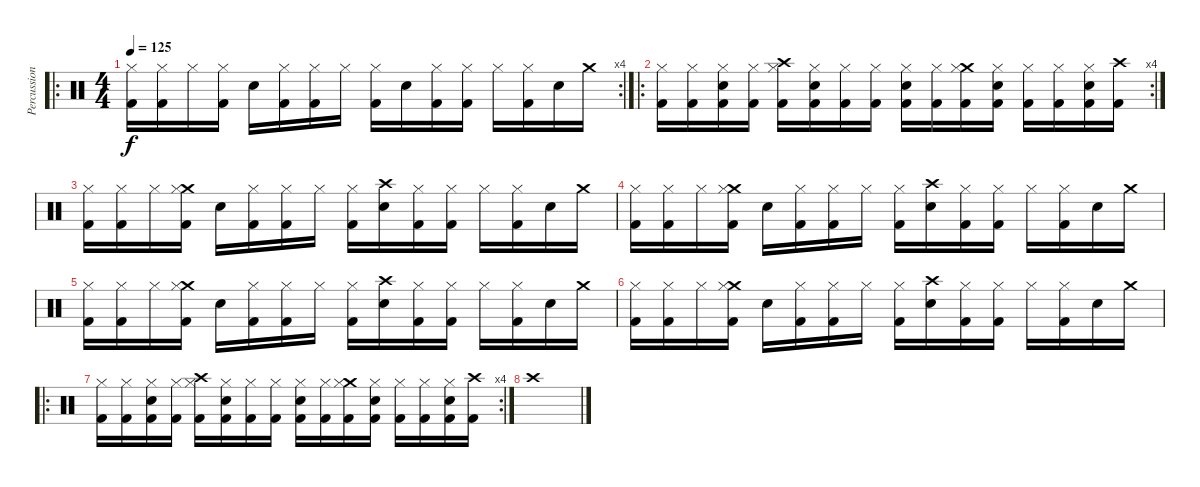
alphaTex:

\track ("Percussion" "Percussion") {instrument percussion}
\staff {score}
\articulation defaults
\ro
\rc 4
\ts (4 4)
\tempo 125
\clef neutral
\ks c
("Kick (hit) 2" "Hi-Hat (closed)").16{dy f} ("Kick (hit) 2" "Hi-Hat (closed)").16 "Hi-Hat (closed)".16 ("Kick (hit) 2" "Hi-Hat (closed)").16 "Electric Snare (hit)".16 ("Kick (hit) 2" "Hi-Hat (closed)").16 ("Kick (hit) 2" "Hi-Hat (closed)").16 "Hi-Hat (closed)".16 ("Kick (hit) 2" "Hi-Hat (closed)").16 "Electric Snare (hit)".16 ("Kick (hit) 2" "Hi-Hat (closed)").16 ("Kick (hit) 2" "Hi-Hat (closed)").16 "Hi-Hat (closed)".16 ("Kick (hit) 2" "Hi-Hat (closed)").16 "Electric Snare (hit)".16 "Crash medium (hit)".16 |
\ro
\rc 4
("Hi-Hat (closed)" "Kick (hit) 2").16 ("Hi-Hat (closed)" "Kick (hit) 2").16 ("Electric Snare (hit)" "Hi-Hat (closed)" "Kick (hit) 2").16 ("Hi-Hat (closed)" "Kick (hit) 2").16 ("Crash high (hit)" "Hi-Hat (closed)" "Kick (hit) 2").16 ("Electric Snare (hit)" "Hi-Hat (closed)" "Kick (hit) 2").16 ("Hi-Hat (closed)" "Kick (hit) 2").16 ("Hi-Hat (closed)" "Kick (hit) 2").16 ("Electric Snare (hit)" "Hi-Hat (closed)" "Kick (hit) 2").16 ("Hi-Hat (closed)" "Kick (hit) 2").16 ("Crash medium (hit)" "Hi-Hat (closed)" "Kick (hit) 2").16 ("Electric Snare (hit)" "Hi-Hat (closed)" "Kick (hit) 2").16 ("Hi-Hat (closed)" "Kick (hit) 2").16 ("Hi-Hat (closed)" "Kick (hit) 2").16 ("Electric Snare (hit)" "Hi-Hat (closed)" "Kick (hit) 2").16 ("Crash high (hit)" "Kick (hit) 2").16 |
("Kick (hit) 2" "Hi-Hat (closed)").16 ("Kick (hit) 2" "Hi-Hat (closed)").16 "Hi-Hat (closed)".16 ("Crash medium (hit)" "Kick (hit) 2" "Hi-Hat (closed)").16 "Electric Snare (hit)".16 ("Kick (hit) 2" "Hi-Hat (closed)").16 ("Kick (hit) 2" "Hi-Hat (closed)").16 "Hi-Hat (closed)".16 ("Kick (hit) 2" "Hi-Hat (closed)").16 ("Crash high (hit)" "Electric Snare (hit)").16 ("Kick (hit) 2" "Hi-Hat (closed)").16 ("Kick (hit) 2" "Hi-Hat (closed)").16 "Hi-Hat (closed)".16 ("Kick (hit) 2" "Hi-Hat (closed)").16 "Electric Snare (hit)".16 "Crash medium (hit)".16 |
("Kick (hit) 2" "Hi-Hat (closed)").16 ("Kick (hit) 2" "Hi-Hat (closed)").16 "Hi-Hat (closed)".16 ("Crash medium (hit)" "Kick (hit) 2" "Hi-Hat (closed)").16 "Electric Snare (hit)".16 ("Kick (hit) 2" "Hi-Hat (closed)").16 ("Kick (hit) 2" "Hi-Hat (closed)").16 "Hi-Hat (closed)".16 ("Kick (hit) 2" "Hi-Hat (closed)").16 ("Crash high (hit)" "Electric Snare (hit)").16 ("Kick (hit) 2" "Hi-Hat (closed)").16 ("Kick (hit) 2" "Hi-Hat (closed)").16 "Hi-Hat (closed)".16 ("Kick (hit) 2" "Hi-Hat (closed)").16 "Electric Snare (hit)".16 "Crash medium (hit)".16 |
("Kick (hit) 2" "Hi-Hat (closed)").16 ("Kick (hit) 2" "Hi-Hat (closed)").16 "Hi-Hat (closed)".16 ("Crash medium (hit)" "Kick (hit) 2" "Hi-Hat (closed)").16 "Electric Snare (hit)".16 ("Kick (hit) 2" "Hi-Hat (closed)").16 ("Kick (hit) 2" "Hi-Hat (closed)").16 "Hi-Hat (closed)".16 ("Kick (hit) 2" "Hi-Hat (closed)").16 ("Crash high (hit)" "Electric Snare (hit)").16 ("Kick (hit) 2" "Hi-Hat (closed)").16 ("Kick (hit) 2" "Hi-Hat (closed)").16 "Hi-Hat (closed)".16 ("Kick (hit) 2" "Hi-Hat (closed)").16 "Electric Snare (hit)".16 "Crash medium (hit)".16 |
("Kick (hit) 2" "Hi-Hat (closed)").16 ("Kick (hit) 2" "Hi-Hat (closed)").16 "Hi-Hat (closed)".16 ("Crash medium (hit)" "Kick (hit) 2" "Hi-Hat (closed)").16 "Electric Snare (hit)".16 ("Kick (hit) 2" "Hi-Hat (closed)").16 ("Kick (hit) 2" "Hi-Hat (closed)").16 "Hi-Hat (closed)".16 ("Kick (hit) 2" "Hi-Hat (closed)").16 ("Crash high (hit)" "Electric Snare (hit)").16 ("Kick (hit) 2" "Hi-Hat (closed)").16 ("Kick (hit) 2" "Hi-Hat (closed)").16 "Hi-Hat (closed)".16 ("Kick (hit) 2" "Hi-Hat (closed)").16 "Electric Snare (hit)".16 "Crash medium (hit)".16 |
\ro
\rc 4
("Hi-Hat (closed)" "Kick (hit) 2").16 ("Hi-Hat (closed)" "Kick (hit) 2").16 ("Electric Snare (hit)" "Hi-Hat (closed)" "Kick (hit) 2").16 ("Hi-Hat (closed)" "Kick (hit) 2").16 ("Crash high (hit)" "Hi-Hat (closed)" "Kick (hit) 2").16 ("Electric Snare (hit)" "Hi-Hat (closed)" "Kick (hit) 2").16 ("Hi-Hat (closed)" "Kick (hit) 2").16 ("Hi-Hat (closed)" "Kick (hit) 2").16 ("Electric Snare (hit)" "Hi-Hat (closed)" "Kick (hit) 2").16 ("Hi-Hat (closed)" "Kick (hit) 2").16 ("Crash medium (hit)" "Hi-Hat (closed)" "Kick (hit) 2").16 ("Electric Snare (hit)" "Hi-Hat (closed)" "Kick (hit) 2").16 ("Hi-Hat (closed)" "Kick (hit) 2").16 ("Hi-Hat (closed)" "Kick (hit) 2").16 ("Electric Snare (hit)" "Hi-Hat (closed)" "Kick (hit) 2").16 ("Crash high (hit)" "Kick (hit) 2").16 |
"Crash high (hit)".1
